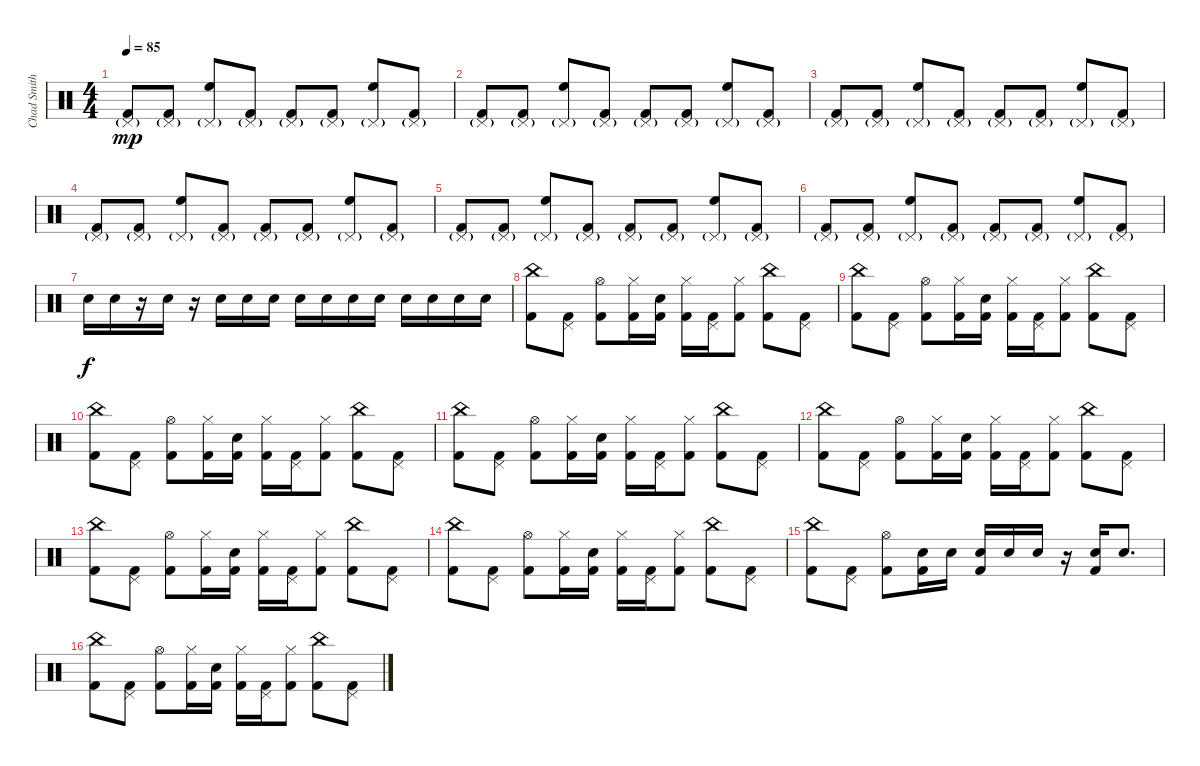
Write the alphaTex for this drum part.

\track ("Chad Smith - Drums" "Chad Smith") {instrument percussion}
\staff {score}
\articulation defaults
\ts (4 4)
\tempo 85
\clef neutral
\ks c
("Pedal Hi-Hat (hit)"{g} "Kick (hit) 2").8{dy mp} ("Pedal Hi-Hat (hit)"{g} "Kick (hit) 2").8 ("Pedal Hi-Hat (hit)"{g} "High Floor Tom (hit)").8 ("Pedal Hi-Hat (hit)"{g} "Kick (hit) 2").8 ("Pedal Hi-Hat (hit)"{g} "Kick (hit) 2").8 ("Pedal Hi-Hat (hit)"{g} "Kick (hit) 2").8 ("Pedal Hi-Hat (hit)"{g} "High Floor Tom (hit)").8 ("Pedal Hi-Hat (hit)"{g} "Kick (hit) 2").8 |
("Pedal Hi-Hat (hit)"{g} "Kick (hit) 2").8 ("Pedal Hi-Hat (hit)"{g} "Kick (hit) 2").8 ("Pedal Hi-Hat (hit)"{g} "High Floor Tom (hit)").8 ("Pedal Hi-Hat (hit)"{g} "Kick (hit) 2").8 ("Pedal Hi-Hat (hit)"{g} "Kick (hit) 2").8 ("Pedal Hi-Hat (hit)"{g} "Kick (hit) 2").8 ("Pedal Hi-Hat (hit)"{g} "High Floor Tom (hit)").8 ("Pedal Hi-Hat (hit)"{g} "Kick (hit) 2").8 |
("Pedal Hi-Hat (hit)"{g} "Kick (hit) 2").8 ("Pedal Hi-Hat (hit)"{g} "Kick (hit) 2").8 ("Pedal Hi-Hat (hit)"{g} "High Floor Tom (hit)").8 ("Pedal Hi-Hat (hit)"{g} "Kick (hit) 2").8 ("Pedal Hi-Hat (hit)"{g} "Kick (hit) 2").8 ("Pedal Hi-Hat (hit)"{g} "Kick (hit) 2").8 ("Pedal Hi-Hat (hit)"{g} "High Floor Tom (hit)").8 ("Pedal Hi-Hat (hit)"{g} "Kick (hit) 2").8 |
("Pedal Hi-Hat (hit)"{g} "Kick (hit) 2").8 ("Pedal Hi-Hat (hit)"{g} "Kick (hit) 2").8 ("Pedal Hi-Hat (hit)"{g} "High Floor Tom (hit)").8 ("Pedal Hi-Hat (hit)"{g} "Kick (hit) 2").8 ("Pedal Hi-Hat (hit)"{g} "Kick (hit) 2").8 ("Pedal Hi-Hat (hit)"{g} "Kick (hit) 2").8 ("Pedal Hi-Hat (hit)"{g} "High Floor Tom (hit)").8 ("Pedal Hi-Hat (hit)"{g} "Kick (hit) 2").8 |
("Pedal Hi-Hat (hit)"{g} "Kick (hit) 2").8 ("Pedal Hi-Hat (hit)"{g} "Kick (hit) 2").8 ("Pedal Hi-Hat (hit)"{g} "High Floor Tom (hit)").8 ("Pedal Hi-Hat (hit)"{g} "Kick (hit) 2").8 ("Pedal Hi-Hat (hit)"{g} "Kick (hit) 2").8 ("Pedal Hi-Hat (hit)"{g} "Kick (hit) 2").8 ("Pedal Hi-Hat (hit)"{g} "High Floor Tom (hit)").8 ("Pedal Hi-Hat (hit)"{g} "Kick (hit) 2").8 |
("Pedal Hi-Hat (hit)"{g} "Kick (hit) 2").8 ("Pedal Hi-Hat (hit)"{g} "Kick (hit) 2").8 ("Pedal Hi-Hat (hit)"{g} "High Floor Tom (hit)").8 ("Pedal Hi-Hat (hit)"{g} "Kick (hit) 2").8 ("Pedal Hi-Hat (hit)"{g} "Kick (hit) 2").8 ("Pedal Hi-Hat (hit)"{g} "Kick (hit) 2").8 ("Pedal Hi-Hat (hit)"{g} "High Floor Tom (hit)").8 ("Pedal Hi-Hat (hit)"{g} "Kick (hit) 2").8 |
"Snare (hit) 2".16{dy f} "Snare (hit) 2".16 r.16 "Snare (hit) 2".16 r.16 "Snare (hit) 2".16 "Snare (hit) 2".16 "Snare (hit) 2".16 "Snare (hit) 2".16 "Snare (hit) 2".16 "Snare (hit) 2".16 "Snare (hit) 2".16 "Snare (hit) 2".16 "Snare (hit) 2".16 "Snare (hit) 2".16 "Snare (hit) 2".16 |
("China (hit)" "Kick (hit) 2").8 ("Pedal Hi-Hat (hit)" "Kick (hit) 2").8 ("Hi-Hat (open)" "Kick (hit) 2").8 ("Hi-Hat (closed)" "Kick (hit) 2").16 ("Electric Snare (hit)" "Kick (hit) 2").16 ("Hi-Hat (closed)" "Kick (hit) 2").16 ("Pedal Hi-Hat (hit)" "Kick (hit) 2").16 ("Hi-Hat (closed)" "Kick (hit) 2").8 ("China (hit)" "Kick (hit) 2").8 ("Pedal Hi-Hat (hit)" "Kick (hit) 2").8 |
("China (hit)" "Kick (hit) 2").8 ("Pedal Hi-Hat (hit)" "Kick (hit) 2").8 ("Hi-Hat (open)" "Kick (hit) 2").8 ("Hi-Hat (closed)" "Kick (hit) 2").16 ("Electric Snare (hit)" "Kick (hit) 2").16 ("Hi-Hat (closed)" "Kick (hit) 2").16 ("Pedal Hi-Hat (hit)" "Kick (hit) 2").16 ("Hi-Hat (closed)" "Kick (hit) 2").8 ("China (hit)" "Kick (hit) 2").8 ("Pedal Hi-Hat (hit)" "Kick (hit) 2").8 |
("China (hit)" "Kick (hit) 2").8 ("Pedal Hi-Hat (hit)" "Kick (hit) 2").8 ("Hi-Hat (open)" "Kick (hit) 2").8 ("Hi-Hat (closed)" "Kick (hit) 2").16 ("Electric Snare (hit)" "Kick (hit) 2").16 ("Hi-Hat (closed)" "Kick (hit) 2").16 ("Pedal Hi-Hat (hit)" "Kick (hit) 2").16 ("Hi-Hat (closed)" "Kick (hit) 2").8 ("China (hit)" "Kick (hit) 2").8 ("Pedal Hi-Hat (hit)" "Kick (hit) 2").8 |
("China (hit)" "Kick (hit) 2").8 ("Pedal Hi-Hat (hit)" "Kick (hit) 2").8 ("Hi-Hat (open)" "Kick (hit) 2").8 ("Hi-Hat (closed)" "Kick (hit) 2").16 ("Electric Snare (hit)" "Kick (hit) 2").16 ("Hi-Hat (closed)" "Kick (hit) 2").16 ("Pedal Hi-Hat (hit)" "Kick (hit) 2").16 ("Hi-Hat (closed)" "Kick (hit) 2").8 ("China (hit)" "Kick (hit) 2").8 ("Pedal Hi-Hat (hit)" "Kick (hit) 2").8 |
("China (hit)" "Kick (hit) 2").8 ("Pedal Hi-Hat (hit)" "Kick (hit) 2").8 ("Hi-Hat (open)" "Kick (hit) 2").8 ("Hi-Hat (closed)" "Kick (hit) 2").16 ("Electric Snare (hit)" "Kick (hit) 2").16 ("Hi-Hat (closed)" "Kick (hit) 2").16 ("Pedal Hi-Hat (hit)" "Kick (hit) 2").16 ("Hi-Hat (closed)" "Kick (hit) 2").8 ("China (hit)" "Kick (hit) 2").8 ("Pedal Hi-Hat (hit)" "Kick (hit) 2").8 |
("China (hit)" "Kick (hit) 2").8 ("Pedal Hi-Hat (hit)" "Kick (hit) 2").8 ("Hi-Hat (open)" "Kick (hit) 2").8 ("Hi-Hat (closed)" "Kick (hit) 2").16 ("Electric Snare (hit)" "Kick (hit) 2").16 ("Hi-Hat (closed)" "Kick (hit) 2").16 ("Pedal Hi-Hat (hit)" "Kick (hit) 2").16 ("Hi-Hat (closed)" "Kick (hit) 2").8 ("China (hit)" "Kick (hit) 2").8 ("Pedal Hi-Hat (hit)" "Kick (hit) 2").8 |
("China (hit)" "Kick (hit) 2").8 ("Pedal Hi-Hat (hit)" "Kick (hit) 2").8 ("Hi-Hat (open)" "Kick (hit) 2").8 ("Hi-Hat (closed)" "Kick (hit) 2").16 ("Electric Snare (hit)" "Kick (hit) 2").16 ("Hi-Hat (closed)" "Kick (hit) 2").16 ("Pedal Hi-Hat (hit)" "Kick (hit) 2").16 ("Hi-Hat (closed)" "Kick (hit) 2").8 ("China (hit)" "Kick (hit) 2").8 ("Pedal Hi-Hat (hit)" "Kick (hit) 2").8 |
("China (hit)" "Kick (hit) 2").8 ("Pedal Hi-Hat (hit)" "Kick (hit) 2").8 ("Hi-Hat (open)" "Kick (hit) 2").8 ("Electric Snare (hit)" "Kick (hit) 2").16 "Electric Snare (hit)".16 ("Electric Snare (hit)" "Kick (hit) 2").16 "Electric Snare (hit)".16 "Electric Snare (hit)".16 r.16 ("Electric Snare (hit)" "Kick (hit) 2").16 "Electric Snare (hit)".8{d} |
("China (hit)" "Kick (hit) 2").8 ("Pedal Hi-Hat (hit)" "Kick (hit) 2").8 ("Hi-Hat (open)" "Kick (hit) 2").8 ("Hi-Hat (closed)" "Kick (hit) 2").16 ("Electric Snare (hit)" "Kick (hit) 2").16 ("Hi-Hat (closed)" "Kick (hit) 2").16 ("Pedal Hi-Hat (hit)" "Kick (hit) 2").16 ("Hi-Hat (closed)" "Kick (hit) 2").8 ("China (hit)" "Kick (hit) 2").8 ("Pedal Hi-Hat (hit)" "Kick (hit) 2").8
